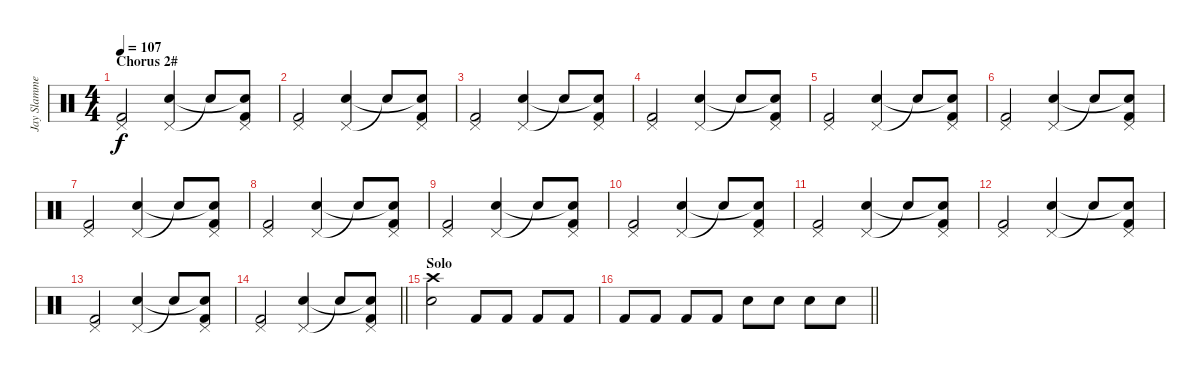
\track ("Jay Slammer" "Jay Slamme") {instrument percussion}
\staff {score}
\articulation defaults
\ts (4 4)
\section ("" "Chorus 2#")
\tempo 107
\clef neutral
\ks c
("Pedal Hi-Hat (hit)" "Kick (hit) 2").2{dy f} ("Pedal Hi-Hat (hit)" "Electric Snare (hit)").4 "Snare (hit)"{t}.8 ("Pedal Hi-Hat (hit)" "Snare (hit)"{t} "Kick (hit) 2").8 |
("Pedal Hi-Hat (hit)" "Kick (hit) 2").2 ("Pedal Hi-Hat (hit)" "Electric Snare (hit)").4 "Snare (hit)"{t}.8 ("Pedal Hi-Hat (hit)" "Snare (hit)"{t} "Kick (hit) 2").8 |
("Pedal Hi-Hat (hit)" "Kick (hit) 2").2 ("Pedal Hi-Hat (hit)" "Electric Snare (hit)").4 "Snare (hit)"{t}.8 ("Pedal Hi-Hat (hit)" "Snare (hit)"{t} "Kick (hit) 2").8 |
("Pedal Hi-Hat (hit)" "Kick (hit) 2").2 ("Pedal Hi-Hat (hit)" "Electric Snare (hit)").4 "Snare (hit)"{t}.8 ("Pedal Hi-Hat (hit)" "Snare (hit)"{t} "Kick (hit) 2").8 |
("Pedal Hi-Hat (hit)" "Kick (hit) 2").2 ("Pedal Hi-Hat (hit)" "Electric Snare (hit)").4 "Snare (hit)"{t}.8 ("Pedal Hi-Hat (hit)" "Snare (hit)"{t} "Kick (hit) 2").8 |
("Pedal Hi-Hat (hit)" "Kick (hit) 2").2 ("Pedal Hi-Hat (hit)" "Electric Snare (hit)").4 "Snare (hit)"{t}.8 ("Pedal Hi-Hat (hit)" "Snare (hit)"{t} "Kick (hit) 2").8 |
("Pedal Hi-Hat (hit)" "Kick (hit) 2").2 ("Pedal Hi-Hat (hit)" "Electric Snare (hit)").4 "Snare (hit)"{t}.8 ("Pedal Hi-Hat (hit)" "Snare (hit)"{t} "Kick (hit) 2").8 |
("Pedal Hi-Hat (hit)" "Kick (hit) 2").2 ("Pedal Hi-Hat (hit)" "Electric Snare (hit)").4 "Snare (hit)"{t}.8 ("Pedal Hi-Hat (hit)" "Snare (hit)"{t} "Kick (hit) 2").8 |
("Pedal Hi-Hat (hit)" "Kick (hit) 2").2 ("Pedal Hi-Hat (hit)" "Electric Snare (hit)").4 "Snare (hit)"{t}.8 ("Pedal Hi-Hat (hit)" "Snare (hit)"{t} "Kick (hit) 2").8 |
("Pedal Hi-Hat (hit)" "Kick (hit) 2").2 ("Pedal Hi-Hat (hit)" "Electric Snare (hit)").4 "Snare (hit)"{t}.8 ("Pedal Hi-Hat (hit)" "Snare (hit)"{t} "Kick (hit) 2").8 |
("Pedal Hi-Hat (hit)" "Kick (hit) 2").2 ("Pedal Hi-Hat (hit)" "Electric Snare (hit)").4 "Snare (hit)"{t}.8 ("Pedal Hi-Hat (hit)" "Snare (hit)"{t} "Kick (hit) 2").8 |
("Pedal Hi-Hat (hit)" "Kick (hit) 2").2 ("Pedal Hi-Hat (hit)" "Electric Snare (hit)").4 "Snare (hit)"{t}.8 ("Pedal Hi-Hat (hit)" "Snare (hit)"{t} "Kick (hit) 2").8 |
("Pedal Hi-Hat (hit)" "Kick (hit) 2").2 ("Pedal Hi-Hat (hit)" "Electric Snare (hit)").4 "Snare (hit)"{t}.8 ("Pedal Hi-Hat (hit)" "Snare (hit)"{t} "Kick (hit) 2").8 |
\barLineRight lightlight
("Pedal Hi-Hat (hit)" "Kick (hit) 2").2 ("Pedal Hi-Hat (hit)" "Electric Snare (hit)").4 "Snare (hit)"{t}.8 ("Pedal Hi-Hat (hit)" "Snare (hit)"{t} "Kick (hit) 2").8 |
\section ("" "Solo")
("Crash high (hit)" "Electric Snare (hit)").2 "Kick (hit) 2".8 "Kick (hit) 2".8 "Kick (hit) 2".8 "Kick (hit) 2".8 |
\barLineRight lightlight "Kick (hit) 2".8 "Kick (hit) 2".8 "Kick (hit) 2".8 "Kick (hit) 2".8 "Electric Snare (hit)".8 "Electric Snare (hit)".8 "Electric Snare (hit)".8 "Electric Snare (hit)".8
